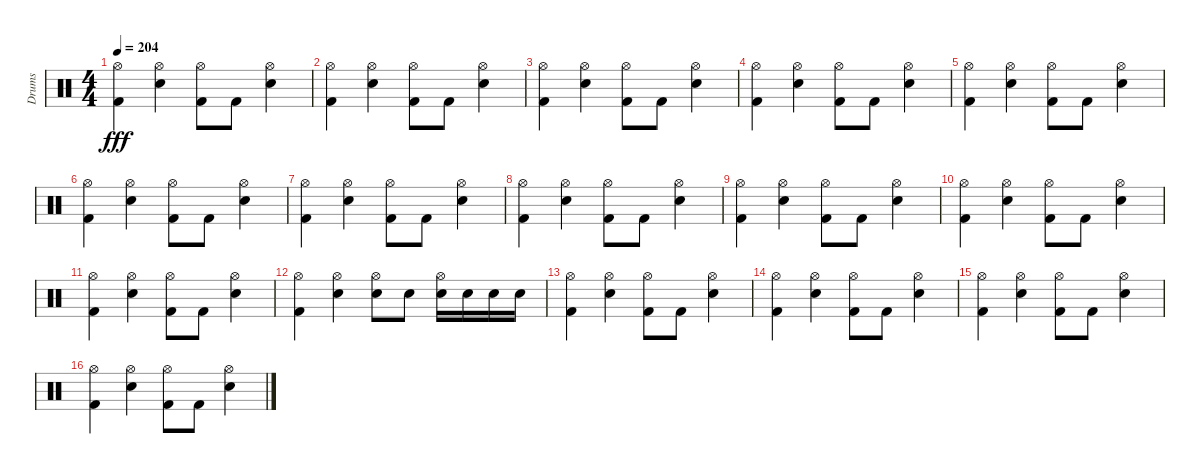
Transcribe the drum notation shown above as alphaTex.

\track ("Drums" "Drums") {instrument percussion}
\staff {score}
\articulation defaults
\ts (4 4)
\tempo 204
\clef neutral
\ks c
("Hi-Hat (open)" "Kick (hit) 2").4{dy fff} ("Hi-Hat (open)" "Snare (hit) 2").4 ("Hi-Hat (open)" "Kick (hit) 2").8 "Kick (hit) 2".8 ("Hi-Hat (open)" "Snare (hit) 2").4 |
("Hi-Hat (open)" "Kick (hit) 2").4 ("Hi-Hat (open)" "Snare (hit) 2").4 ("Hi-Hat (open)" "Kick (hit) 2").8 "Kick (hit) 2".8 ("Hi-Hat (open)" "Snare (hit) 2").4 |
("Hi-Hat (open)" "Kick (hit) 2").4 ("Hi-Hat (open)" "Snare (hit) 2").4 ("Hi-Hat (open)" "Kick (hit) 2").8 "Kick (hit) 2".8 ("Hi-Hat (open)" "Snare (hit) 2").4 |
("Hi-Hat (open)" "Kick (hit) 2").4 ("Hi-Hat (open)" "Snare (hit) 2").4 ("Hi-Hat (open)" "Kick (hit) 2").8 "Kick (hit) 2".8 ("Hi-Hat (open)" "Snare (hit) 2").4 |
("Hi-Hat (open)" "Kick (hit) 2").4 ("Hi-Hat (open)" "Snare (hit) 2").4 ("Hi-Hat (open)" "Kick (hit) 2").8 "Kick (hit) 2".8 ("Hi-Hat (open)" "Snare (hit) 2").4 |
("Hi-Hat (open)" "Kick (hit) 2").4 ("Hi-Hat (open)" "Snare (hit) 2").4 ("Hi-Hat (open)" "Kick (hit) 2").8 "Kick (hit) 2".8 ("Hi-Hat (open)" "Snare (hit) 2").4 |
("Hi-Hat (open)" "Kick (hit) 2").4 ("Hi-Hat (open)" "Snare (hit) 2").4 ("Hi-Hat (open)" "Kick (hit) 2").8 "Kick (hit) 2".8 ("Hi-Hat (open)" "Snare (hit) 2").4 |
("Hi-Hat (open)" "Kick (hit) 2").4 ("Hi-Hat (open)" "Snare (hit) 2").4 ("Hi-Hat (open)" "Kick (hit) 2").8 "Kick (hit) 2".8 ("Hi-Hat (open)" "Snare (hit) 2").4 |
("Hi-Hat (open)" "Kick (hit) 2").4 ("Hi-Hat (open)" "Snare (hit) 2").4 ("Hi-Hat (open)" "Kick (hit) 2").8 "Kick (hit) 2".8 ("Hi-Hat (open)" "Snare (hit) 2").4 |
("Hi-Hat (open)" "Kick (hit) 2").4 ("Hi-Hat (open)" "Snare (hit) 2").4 ("Hi-Hat (open)" "Kick (hit) 2").8 "Kick (hit) 2".8 ("Hi-Hat (open)" "Snare (hit) 2").4 |
("Hi-Hat (open)" "Kick (hit) 2").4 ("Hi-Hat (open)" "Snare (hit) 2").4 ("Hi-Hat (open)" "Kick (hit) 2").8 "Kick (hit) 2".8 ("Hi-Hat (open)" "Snare (hit) 2").4 |
("Hi-Hat (open)" "Kick (hit) 2").4 ("Hi-Hat (open)" "Snare (hit) 2").4 ("Hi-Hat (open)" "Snare (hit) 2").8 "Snare (hit) 2".8 ("Hi-Hat (open)" "Snare (hit) 2").16 "Snare (hit) 2".16 "Snare (hit) 2".16 "Snare (hit) 2".16 |
("Hi-Hat (open)" "Kick (hit) 2").4 ("Hi-Hat (open)" "Snare (hit) 2").4 ("Hi-Hat (open)" "Kick (hit) 2").8 "Kick (hit) 2".8 ("Hi-Hat (open)" "Snare (hit) 2").4 |
("Hi-Hat (open)" "Kick (hit) 2").4 ("Hi-Hat (open)" "Snare (hit) 2").4 ("Hi-Hat (open)" "Kick (hit) 2").8 "Kick (hit) 2".8 ("Hi-Hat (open)" "Snare (hit) 2").4 |
("Hi-Hat (open)" "Kick (hit) 2").4 ("Hi-Hat (open)" "Snare (hit) 2").4 ("Hi-Hat (open)" "Kick (hit) 2").8 "Kick (hit) 2".8 ("Hi-Hat (open)" "Snare (hit) 2").4 |
("Hi-Hat (open)" "Kick (hit) 2").4 ("Hi-Hat (open)" "Snare (hit) 2").4 ("Hi-Hat (open)" "Kick (hit) 2").8 "Kick (hit) 2".8 ("Hi-Hat (open)" "Snare (hit) 2").4
